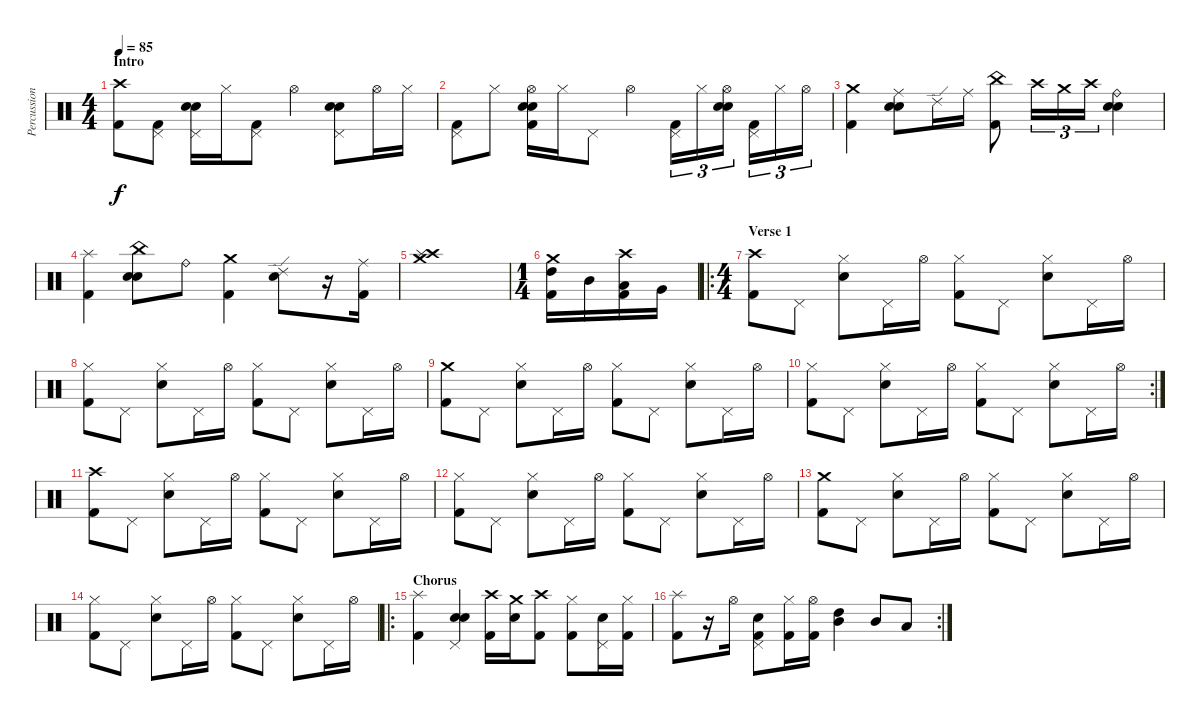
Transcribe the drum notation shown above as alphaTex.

\track ("Percussion" "Percussion") {instrument percussion}
\staff {score}
\articulation defaults
\ts (4 4)
\section ("" "Intro")
\tempo 85
\clef neutral
\ks c
("Crash high (hit)" "Kick (hit) 2").8{dy f} ("Pedal Hi-Hat (hit)" "Kick (hit) 2").8 ("Pedal Hi-Hat (hit)" "Electric Snare (hit)" "Snare (hit) 2").16 "Hi-Hat (closed)".16 ("Pedal Hi-Hat (hit)" "Kick (hit) 2").8 "Hi-Hat (open)".4 ("Pedal Hi-Hat (hit)" "Electric Snare (hit)" "Snare (hit) 2").8 "Hi-Hat (open)".16 "Hi-Hat (closed)".16 |
("Pedal Hi-Hat (hit)" "Kick (hit) 2").8 "Hi-Hat (closed)".8 ("Hi-Hat (open)" "Electric Snare (hit)" "Snare (hit) 2" "Kick (hit) 2").16 "Hi-Hat (closed)".16 "Pedal Hi-Hat (hit)".8 "Hi-Hat (open)".4 ("Pedal Hi-Hat (hit)" "Kick (hit) 2").16{tu (3 2)} "Hi-Hat (closed)".16{tu (3 2)} ("Hi-Hat (open)" "Electric Snare (hit)" "Snare (hit) 2").16{tu (3 2)} ("Pedal Hi-Hat (hit)" "Kick (hit) 2").16{tu (3 2)} "Hi-Hat (closed)".16{tu (3 2)} "Hi-Hat (open)".16{tu (3 2)} |
("Crash medium (hit)" "Kick (hit) 2").4 ("Ride (middle)" "Electric Snare (hit)" "Snare (hit) 2").8 "Ride (edge) 2".16 "Ride (middle)".16 ("China (hit)" "Kick (hit) 2").8 "Crash high (hit)".16{tu (3 2)} "Crash medium (hit)".16{tu (3 2)} "Crash high (hit)".16{tu (3 2)} ("Ride (bell)" "Electric Snare (hit)" "Snare (hit) 2").4 |
("Splash (hit)" "Kick (hit) 2").4 ("China (hit)" "Electric Snare (hit)" "Snare (hit) 2").8 "Ride (bell)".8 ("Crash medium (hit)" "Kick (hit) 2").4 ("Ride (edge) 2" "Electric Snare (hit)").8 r.16 ("Ride (middle)" "Kick (hit) 2").16 |
("Crash high (hit)" "Crash medium (hit)" "Splash (hit)").1 |
\ts (1 4)
("Crash medium (hit)" "High Tom (hit)" "Kick (hit) 2").16 "Mid Tom (hit)".16 ("Crash high (hit)" "Low Tom (hit)" "Kick (hit) 2").16 "Very Low Tom (hit)".16 |
\ro
\ts (4 4)
\section ("" "Verse 1")
("Crash high (hit)" "Kick (hit) 2").8 "Pedal Hi-Hat (hit)".8 ("Hi-Hat (closed)" "Electric Snare (hit)").8 "Pedal Hi-Hat (hit)".16 "Hi-Hat (open)".16 ("Hi-Hat (closed)" "Kick (hit) 2").8 "Pedal Hi-Hat (hit)".8 ("Hi-Hat (closed)" "Electric Snare (hit)").8 "Pedal Hi-Hat (hit)".16 "Hi-Hat (open)".16 |
("Hi-Hat (closed)" "Kick (hit) 2").8 "Pedal Hi-Hat (hit)".8 ("Hi-Hat (closed)" "Electric Snare (hit)").8 "Pedal Hi-Hat (hit)".16 "Hi-Hat (open)".16 ("Hi-Hat (closed)" "Kick (hit) 2").8 "Pedal Hi-Hat (hit)".8 ("Hi-Hat (closed)" "Electric Snare (hit)").8 "Pedal Hi-Hat (hit)".16 "Hi-Hat (open)".16 |
("Crash medium (hit)" "Kick (hit) 2").8 "Pedal Hi-Hat (hit)".8 ("Hi-Hat (closed)" "Electric Snare (hit)").8 "Pedal Hi-Hat (hit)".16 "Hi-Hat (open)".16 ("Hi-Hat (closed)" "Kick (hit) 2").8 "Pedal Hi-Hat (hit)".8 ("Hi-Hat (closed)" "Electric Snare (hit)").8 "Pedal Hi-Hat (hit)".16 "Hi-Hat (open)".16 |
\rc 2
("Hi-Hat (closed)" "Kick (hit) 2").8 "Pedal Hi-Hat (hit)".8 ("Hi-Hat (closed)" "Electric Snare (hit)").8 "Pedal Hi-Hat (hit)".16 "Hi-Hat (open)".16 ("Hi-Hat (closed)" "Kick (hit) 2").8 "Pedal Hi-Hat (hit)".8 ("Hi-Hat (closed)" "Electric Snare (hit)").8 "Pedal Hi-Hat (hit)".16 "Hi-Hat (open)".16 |
("Crash high (hit)" "Kick (hit) 2").8 "Pedal Hi-Hat (hit)".8 ("Hi-Hat (closed)" "Electric Snare (hit)").8 "Pedal Hi-Hat (hit)".16 "Hi-Hat (open)".16 ("Hi-Hat (closed)" "Kick (hit) 2").8 "Pedal Hi-Hat (hit)".8 ("Hi-Hat (closed)" "Electric Snare (hit)").8 "Pedal Hi-Hat (hit)".16 "Hi-Hat (open)".16 |
("Hi-Hat (closed)" "Kick (hit) 2").8 "Pedal Hi-Hat (hit)".8 ("Hi-Hat (closed)" "Electric Snare (hit)").8 "Pedal Hi-Hat (hit)".16 "Hi-Hat (open)".16 ("Hi-Hat (closed)" "Kick (hit) 2").8 "Pedal Hi-Hat (hit)".8 ("Hi-Hat (closed)" "Electric Snare (hit)").8 "Pedal Hi-Hat (hit)".16 "Hi-Hat (open)".16 |
("Crash medium (hit)" "Kick (hit) 2").8 "Pedal Hi-Hat (hit)".8 ("Hi-Hat (closed)" "Electric Snare (hit)").8 "Pedal Hi-Hat (hit)".16 "Hi-Hat (open)".16 ("Hi-Hat (closed)" "Kick (hit) 2").8 "Pedal Hi-Hat (hit)".8 ("Hi-Hat (closed)" "Electric Snare (hit)").8 "Pedal Hi-Hat (hit)".16 "Hi-Hat (open)".16 |
("Hi-Hat (closed)" "Kick (hit) 2").8 "Pedal Hi-Hat (hit)".8 ("Hi-Hat (closed)" "Electric Snare (hit)").8 "Pedal Hi-Hat (hit)".16 "Hi-Hat (open)".16 ("Hi-Hat (closed)" "Kick (hit) 2").8 "Pedal Hi-Hat (hit)".8 ("Hi-Hat (closed)" "Electric Snare (hit)").8 "Pedal Hi-Hat (hit)".16 "Hi-Hat (open)".16 |
\ro
\section ("" "Chorus")
("Splash (hit)" "Kick (hit) 2").4 ("Pedal Hi-Hat (hit)" "Electric Snare (hit)" "Snare (hit) 2").4 ("Crash high (hit)" "Kick (hit) 2").16 ("Crash medium (hit)" "Electric Snare (hit)").16 ("Crash high (hit)" "Kick (hit) 2").8 ("Hi-Hat (closed)" "Kick (hit) 2").8 ("Pedal Hi-Hat (hit)" "Electric Snare (hit)").16 ("Hi-Hat (closed)" "Kick (hit) 2").16 |
\rc 2
("Splash (hit)" "Kick (hit) 2").8 r.16 "Hi-Hat (open)".16 ("Pedal Hi-Hat (hit)" "Electric Snare (hit)" "Kick (hit) 2").8 ("Hi-Hat (closed)" "Kick (hit) 2").16 ("Hi-Hat (open)" "Kick (hit) 2").16 ("Mid Tom (hit)" "High Tom (hit)").4 "Mid Tom (hit)".8 "Low Tom (hit)".8
